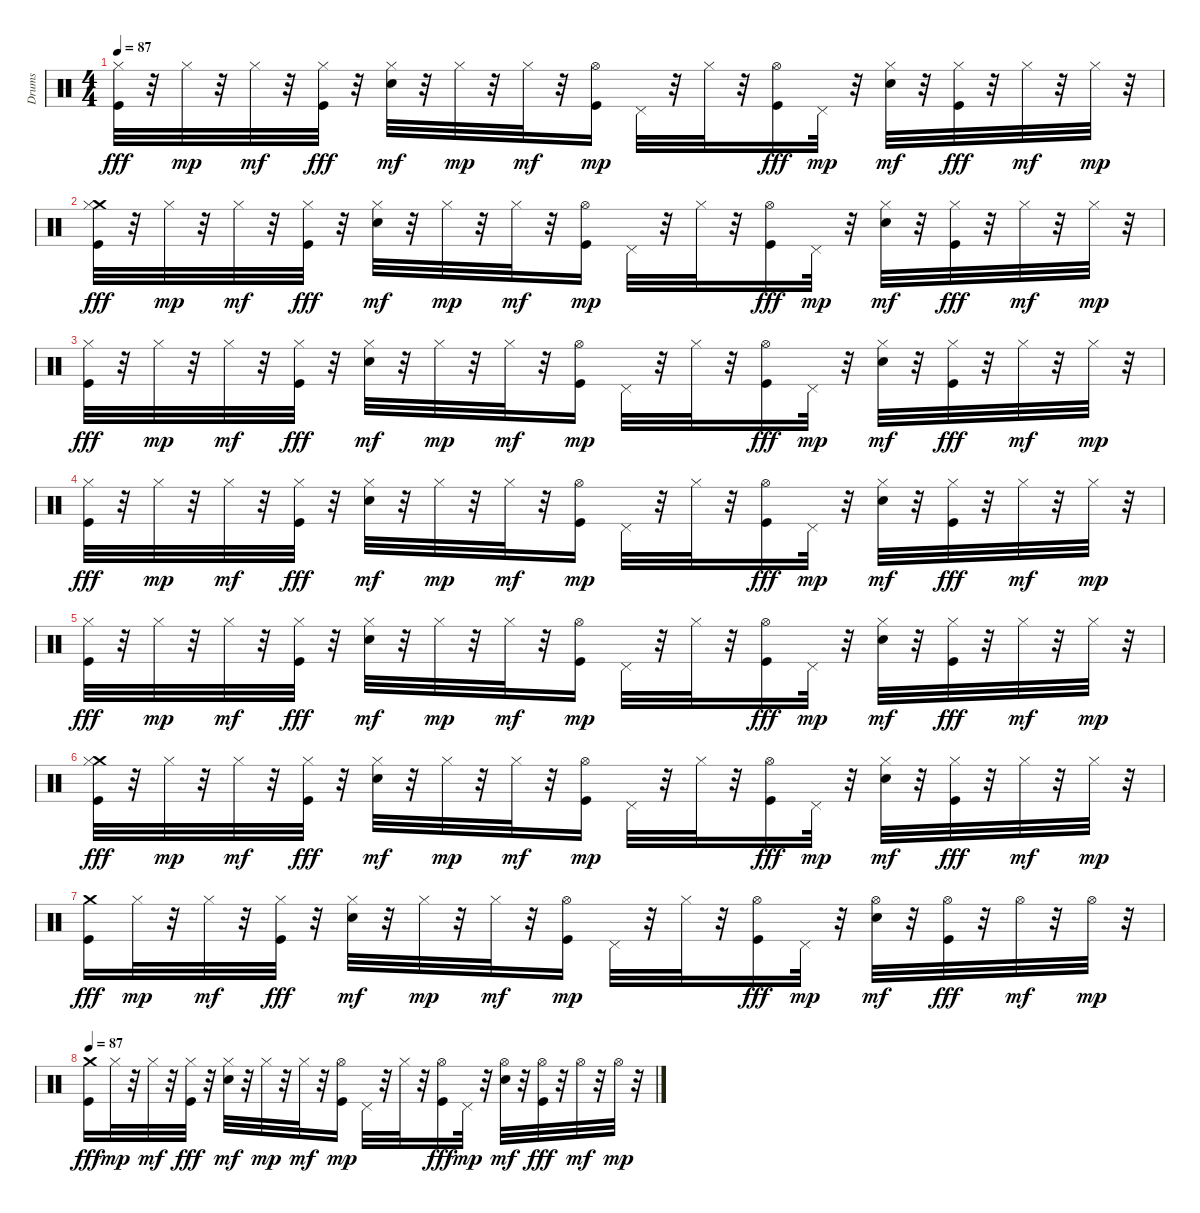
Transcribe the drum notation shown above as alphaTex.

\track ("Drums" "Drums") {instrument percussion}
\staff {score}
\articulation defaults
\ts (4 4)
\tempo 87
\clef neutral
\ks c
("Hi-Hat (closed)" "Kick (hit)").32{dy fff} r.32 "Hi-Hat (closed)".32{dy mp} r.32 "Hi-Hat (closed)".32{dy mf} r.32 ("Hi-Hat (closed)" "Kick (hit)").32{dy fff} r.32 ("Hi-Hat (closed)" "Electric Snare (hit)").32{dy mf} r.32 "Hi-Hat (closed)".32{dy mp} r.32 "Hi-Hat (closed)".32{dy mf} r.32 ("Kick (hit)" "Hi-Hat (open)").16{dy mp} "Pedal Hi-Hat (hit)".32 r.32 "Hi-Hat (closed)".32 r.32 ("Hi-Hat (open)" "Kick (hit)").16{dy fff} "Pedal Hi-Hat (hit)".32{dy mp} r.32 ("Hi-Hat (closed)" "Electric Snare (hit)").32{dy mf} r.32 ("Hi-Hat (closed)" "Kick (hit)").32{dy fff} r.32 "Hi-Hat (closed)".32{dy mf} r.32 "Hi-Hat (closed)".32{dy mp} r.32 |
("Crash medium (hit)" "Hi-Hat (closed)" "Kick (hit)").32{dy fff} r.32 "Hi-Hat (closed)".32{dy mp} r.32 "Hi-Hat (closed)".32{dy mf} r.32 ("Hi-Hat (closed)" "Kick (hit)").32{dy fff} r.32 ("Hi-Hat (closed)" "Electric Snare (hit)").32{dy mf} r.32 "Hi-Hat (closed)".32{dy mp} r.32 "Hi-Hat (closed)".32{dy mf} r.32 ("Kick (hit)" "Hi-Hat (open)").16{dy mp} "Pedal Hi-Hat (hit)".32 r.32 "Hi-Hat (closed)".32 r.32 ("Hi-Hat (open)" "Kick (hit)").16{dy fff} "Pedal Hi-Hat (hit)".32{dy mp} r.32 ("Hi-Hat (closed)" "Electric Snare (hit)").32{dy mf} r.32 ("Hi-Hat (closed)" "Kick (hit)").32{dy fff} r.32 "Hi-Hat (closed)".32{dy mf} r.32 "Hi-Hat (closed)".32{dy mp} r.32 |
("Hi-Hat (closed)" "Kick (hit)").32{dy fff} r.32 "Hi-Hat (closed)".32{dy mp} r.32 "Hi-Hat (closed)".32{dy mf} r.32 ("Hi-Hat (closed)" "Kick (hit)").32{dy fff} r.32 ("Hi-Hat (closed)" "Electric Snare (hit)").32{dy mf} r.32 "Hi-Hat (closed)".32{dy mp} r.32 "Hi-Hat (closed)".32{dy mf} r.32 ("Kick (hit)" "Hi-Hat (open)").16{dy mp} "Pedal Hi-Hat (hit)".32 r.32 "Hi-Hat (closed)".32 r.32 ("Hi-Hat (open)" "Kick (hit)").16{dy fff} "Pedal Hi-Hat (hit)".32{dy mp} r.32 ("Hi-Hat (closed)" "Electric Snare (hit)").32{dy mf} r.32 ("Hi-Hat (closed)" "Kick (hit)").32{dy fff} r.32 "Hi-Hat (closed)".32{dy mf} r.32 "Hi-Hat (closed)".32{dy mp} r.32 |
("Hi-Hat (closed)" "Kick (hit)").32{dy fff} r.32 "Hi-Hat (closed)".32{dy mp} r.32 "Hi-Hat (closed)".32{dy mf} r.32 ("Hi-Hat (closed)" "Kick (hit)").32{dy fff} r.32 ("Hi-Hat (closed)" "Electric Snare (hit)").32{dy mf} r.32 "Hi-Hat (closed)".32{dy mp} r.32 "Hi-Hat (closed)".32{dy mf} r.32 ("Kick (hit)" "Hi-Hat (open)").16{dy mp} "Pedal Hi-Hat (hit)".32 r.32 "Hi-Hat (closed)".32 r.32 ("Hi-Hat (open)" "Kick (hit)").16{dy fff} "Pedal Hi-Hat (hit)".32{dy mp} r.32 ("Hi-Hat (closed)" "Electric Snare (hit)").32{dy mf} r.32 ("Hi-Hat (closed)" "Kick (hit)").32{dy fff} r.32 "Hi-Hat (closed)".32{dy mf} r.32 "Hi-Hat (closed)".32{dy mp} r.32 |
("Hi-Hat (closed)" "Kick (hit)").32{dy fff} r.32 "Hi-Hat (closed)".32{dy mp} r.32 "Hi-Hat (closed)".32{dy mf} r.32 ("Hi-Hat (closed)" "Kick (hit)").32{dy fff} r.32 ("Hi-Hat (closed)" "Electric Snare (hit)").32{dy mf} r.32 "Hi-Hat (closed)".32{dy mp} r.32 "Hi-Hat (closed)".32{dy mf} r.32 ("Kick (hit)" "Hi-Hat (open)").16{dy mp} "Pedal Hi-Hat (hit)".32 r.32 "Hi-Hat (closed)".32 r.32 ("Hi-Hat (open)" "Kick (hit)").16{dy fff} "Pedal Hi-Hat (hit)".32{dy mp} r.32 ("Hi-Hat (closed)" "Electric Snare (hit)").32{dy mf} r.32 ("Hi-Hat (closed)" "Kick (hit)").32{dy fff} r.32 "Hi-Hat (closed)".32{dy mf} r.32 "Hi-Hat (closed)".32{dy mp} r.32 |
("Crash medium (hit)" "Hi-Hat (closed)" "Kick (hit)").32{dy fff} r.32 "Hi-Hat (closed)".32{dy mp} r.32 "Hi-Hat (closed)".32{dy mf} r.32 ("Hi-Hat (closed)" "Kick (hit)").32{dy fff} r.32 ("Hi-Hat (closed)" "Electric Snare (hit)").32{dy mf} r.32 "Hi-Hat (closed)".32{dy mp} r.32 "Hi-Hat (closed)".32{dy mf} r.32 ("Kick (hit)" "Hi-Hat (open)").16{dy mp} "Pedal Hi-Hat (hit)".32 r.32 "Hi-Hat (closed)".32 r.32 ("Hi-Hat (open)" "Kick (hit)").16{dy fff} "Pedal Hi-Hat (hit)".32{dy mp} r.32 ("Hi-Hat (closed)" "Electric Snare (hit)").32{dy mf} r.32 ("Hi-Hat (closed)" "Kick (hit)").32{dy fff} r.32 "Hi-Hat (closed)".32{dy mf} r.32 "Hi-Hat (closed)".32{dy mp} r.32 |
("Crash medium (hit)" "Kick (hit)").16{dy fff} "Hi-Hat (closed)".32{dy mp} r.32 "Hi-Hat (closed)".32{dy mf} r.32 ("Hi-Hat (closed)" "Kick (hit)").32{dy fff} r.32 ("Hi-Hat (closed)" "Electric Snare (hit)").32{dy mf} r.32 "Hi-Hat (closed)".32{dy mp} r.32 "Hi-Hat (closed)".32{dy mf} r.32 ("Kick (hit)" "Hi-Hat (open)").16{dy mp} "Pedal Hi-Hat (hit)".32 r.32 "Hi-Hat (closed)".32 r.32 ("Hi-Hat (open)" "Kick (hit)").16{dy fff} "Pedal Hi-Hat (hit)".32{dy mp} r.32 ("Hi-Hat (open)" "Electric Snare (hit)").32{dy mf} r.32 ("Hi-Hat (open)" "Kick (hit)").32{dy fff} r.32 "Hi-Hat (open)".32{dy mf} r.32 "Hi-Hat (open)".32{dy mp} r.32 |
\tempo 87
("Crash medium (hit)" "Kick (hit)").16{dy fff} "Hi-Hat (closed)".32{dy mp} r.32 "Hi-Hat (closed)".32{dy mf} r.32 ("Hi-Hat (closed)" "Kick (hit)").32{dy fff} r.32 ("Hi-Hat (closed)" "Electric Snare (hit)").32{dy mf} r.32 "Hi-Hat (closed)".32{dy mp} r.32 "Hi-Hat (closed)".32{dy mf} r.32 ("Kick (hit)" "Hi-Hat (open)").16{dy mp} "Pedal Hi-Hat (hit)".32 r.32 "Hi-Hat (closed)".32 r.32 ("Hi-Hat (open)" "Kick (hit)").16{dy fff} "Pedal Hi-Hat (hit)".32{dy mp} r.32 ("Hi-Hat (open)" "Electric Snare (hit)").32{dy mf} r.32 ("Hi-Hat (open)" "Kick (hit)").32{dy fff} r.32 "Hi-Hat (open)".32{dy mf} r.32 "Hi-Hat (open)".32{dy mp} r.32
